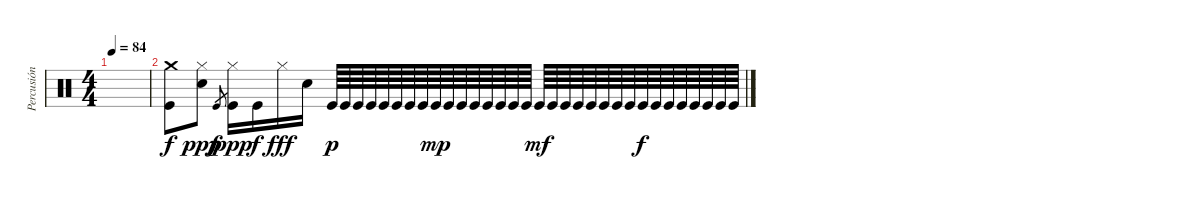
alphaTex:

\track ("Percusión" "Percusión") {instrument percussion}
\staff {score}
\articulation defaults
\ts (4 4)
\tempo 84
\clef neutral
\ks c
|
("Kick (hit)" "Crash medium (hit)").8{dy f} ("Snare (hit) 2" "Hi-Hat (closed)").8{dy ppp} "Kick (hit)".8{gr dy f} ("Kick (hit)" "Hi-Hat (closed)").16{dy ppp} "Kick (hit)".16{dy f} "Hi-Hat (closed)".16{dy fff} "Snare (hit) 2".16 "Kick (hit)".64{dy p} "Kick (hit)".64 "Kick (hit)".64 "Kick (hit)".64 "Kick (hit)".64 "Kick (hit)".64 "Kick (hit)".64 "Kick (hit)".64 "Kick (hit)".64{dy mp} "Kick (hit)".64 "Kick (hit)".64 "Kick (hit)".64 "Kick (hit)".64 "Kick (hit)".64 "Kick (hit)".64 "Kick (hit)".64 "Kick (hit)".64{dy mf} "Kick (hit)".64 "Kick (hit)".64 "Kick (hit)".64 "Kick (hit)".64 "Kick (hit)".64 "Kick (hit)".64 "Kick (hit)".64 "Kick (hit)".64{dy f} "Kick (hit)".64 "Kick (hit)".64 "Kick (hit)".64 "Kick (hit)".64 "Kick (hit)".64 "Kick (hit)".64 "Kick (hit)".64
